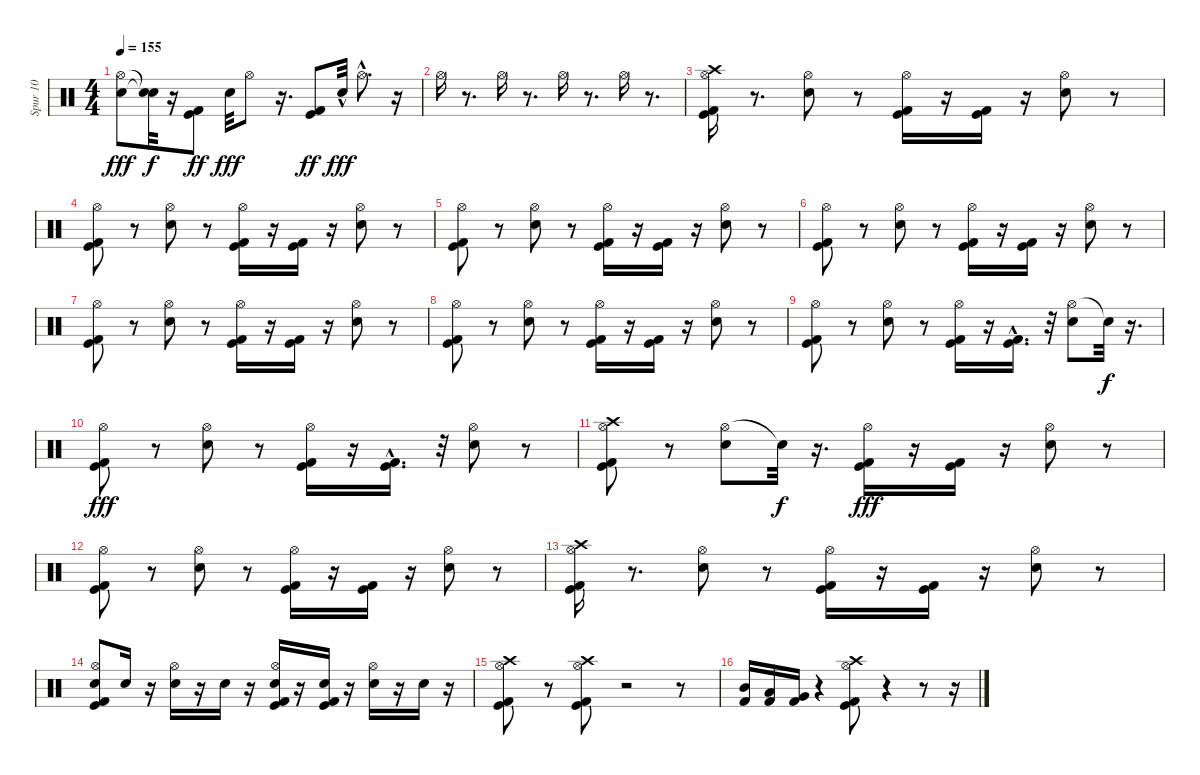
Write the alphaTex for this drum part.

\track ("Spur 10" "Spur 10") {instrument percussion}
\staff {score}
\articulation defaults
\ts (4 4)
\tempo 155
\clef neutral
\ks c
("Electric Snare (hit)" "Hi-Hat (open)").8{dy fff} ("Snare (hit)"{t} "Snare (hit)"{t}).32{dy f} r.16 ("Kick (hit)" "Kick (hit) 2").8{dy ff} "Electric Snare (hit)".32{dy fff} "Hi-Hat (open)".8 r.16{d} ("Kick (hit)" "Kick (hit) 2").8{dy ff} "Electric Snare (hit)"{hac}.32{dy fff} "Hi-Hat (open)"{hac}.8{d} r.16 |
"Hi-Hat (open)".16 r.8{d} "Hi-Hat (open)".16 r.8{d} "Hi-Hat (open)".16 r.8{d} "Hi-Hat (open)".16 r.8{d} |
("Hi-Hat (open)" "Crash high (hit)" "Kick (hit)" "Kick (hit) 2").16 r.8{d} ("Hi-Hat (open)" "Electric Snare (hit)").8 r.8 ("Hi-Hat (open)" "Kick (hit)" "Kick (hit) 2").16 r.16 ("Kick (hit)" "Kick (hit) 2").16 r.16 ("Hi-Hat (open)" "Electric Snare (hit)").8 r.8 |
("Kick (hit)" "Hi-Hat (open)" "Kick (hit) 2").8 r.8 ("Hi-Hat (open)" "Electric Snare (hit)").8 r.8 ("Kick (hit)" "Hi-Hat (open)" "Kick (hit) 2").16 r.16 ("Kick (hit)" "Kick (hit) 2").16 r.16 ("Hi-Hat (open)" "Electric Snare (hit)").8 r.8 |
("Kick (hit)" "Hi-Hat (open)" "Kick (hit) 2").8 r.8 ("Hi-Hat (open)" "Electric Snare (hit)").8 r.8 ("Kick (hit)" "Hi-Hat (open)" "Kick (hit) 2").16 r.16 ("Kick (hit)" "Kick (hit) 2").16 r.16 ("Hi-Hat (open)" "Electric Snare (hit)").8 r.8 |
("Kick (hit)" "Hi-Hat (open)" "Kick (hit) 2").8 r.8 ("Hi-Hat (open)" "Electric Snare (hit)").8 r.8 ("Kick (hit)" "Hi-Hat (open)" "Kick (hit) 2").16 r.16 ("Kick (hit)" "Kick (hit) 2").16 r.16 ("Hi-Hat (open)" "Electric Snare (hit)").8 r.8 |
("Kick (hit)" "Hi-Hat (open)" "Kick (hit) 2").8 r.8 ("Hi-Hat (open)" "Electric Snare (hit)").8 r.8 ("Kick (hit)" "Hi-Hat (open)" "Kick (hit) 2").16 r.16 ("Kick (hit)" "Kick (hit) 2").16 r.16 ("Hi-Hat (open)" "Electric Snare (hit)").8 r.8 |
("Kick (hit)" "Hi-Hat (open)" "Kick (hit) 2").8 r.8 ("Hi-Hat (open)" "Electric Snare (hit)").8 r.8 ("Kick (hit)" "Hi-Hat (open)" "Kick (hit) 2").16 r.16 ("Kick (hit)" "Kick (hit) 2").16 r.16 ("Hi-Hat (open)" "Electric Snare (hit)").8 r.8 |
("Kick (hit)" "Hi-Hat (open)" "Kick (hit) 2").8 r.8 ("Hi-Hat (open)" "Electric Snare (hit)").8 r.8 ("Kick (hit)" "Hi-Hat (open)" "Kick (hit) 2").16 r.16 ("Kick (hit)"{hac} "Kick (hit) 2"{hac}).16{d} r.32 ("Hi-Hat (open)" "Electric Snare (hit)").8 "Snare (hit)"{t}.32{dy f} r.16{d} |
("Kick (hit)" "Hi-Hat (open)" "Kick (hit) 2").8{dy fff} r.8 ("Hi-Hat (open)" "Electric Snare (hit)").8 r.8 ("Kick (hit)" "Hi-Hat (open)" "Kick (hit) 2").16 r.16 ("Kick (hit)"{hac} "Kick (hit) 2"{hac}).16{d} r.32 ("Hi-Hat (open)" "Electric Snare (hit)").8 r.8 |
("Crash high (hit)" "Kick (hit)" "Hi-Hat (open)" "Kick (hit) 2").8 r.8 ("Hi-Hat (open)" "Electric Snare (hit)").8 "Snare (hit)"{t}.32{dy f} r.16{d} ("Kick (hit)" "Hi-Hat (open)" "Kick (hit) 2").16{dy fff} r.16 ("Kick (hit)" "Kick (hit) 2").16 r.16 ("Hi-Hat (open)" "Electric Snare (hit)").8 r.8 |
("Kick (hit)" "Hi-Hat (open)" "Kick (hit) 2").8 r.8 ("Hi-Hat (open)" "Electric Snare (hit)").8 r.8 ("Kick (hit)" "Hi-Hat (open)" "Kick (hit) 2").16 r.16 ("Kick (hit)" "Kick (hit) 2").16 r.16 ("Hi-Hat (open)" "Electric Snare (hit)").8 r.8 |
("Kick (hit)" "Crash high (hit)" "Hi-Hat (open)" "Kick (hit) 2").16 r.8{d} ("Hi-Hat (open)" "Electric Snare (hit)").8 r.8 ("Kick (hit)" "Hi-Hat (open)" "Kick (hit) 2").16 r.16 ("Kick (hit)" "Kick (hit) 2").16 r.16 ("Hi-Hat (open)" "Electric Snare (hit)").8 r.8 |
("Electric Snare (hit)" "Kick (hit)" "Hi-Hat (open)" "Kick (hit) 2").8 "Electric Snare (hit)".16 r.16 ("Electric Snare (hit)" "Hi-Hat (open)").16 r.16 "Electric Snare (hit)".16 r.16 ("Electric Snare (hit)" "Kick (hit)" "Hi-Hat (open)" "Kick (hit) 2").16 r.16 ("Electric Snare (hit)" "Kick (hit)" "Kick (hit) 2").16 r.16 ("Electric Snare (hit)" "Hi-Hat (open)").16 r.16 "Electric Snare (hit)".16 r.16 |
("Crash high (hit)" "Hi-Hat (open)" "Kick (hit)" "Kick (hit) 2").8 r.8 ("Kick (hit)" "Kick (hit) 2" "Crash high (hit)" "Hi-Hat (open)").8 r.2 r.8 |
("Mid Tom (hit)" "Kick (hit) 2").16 ("Low Tom (hit)" "Kick (hit) 2").16 ("Very Low Tom (hit)" "Kick (hit) 2").16 r.4 ("Hi-Hat (open)" "Crash high (hit)" "Kick (hit)" "Kick (hit) 2").8 r.4 r.8 r.16
